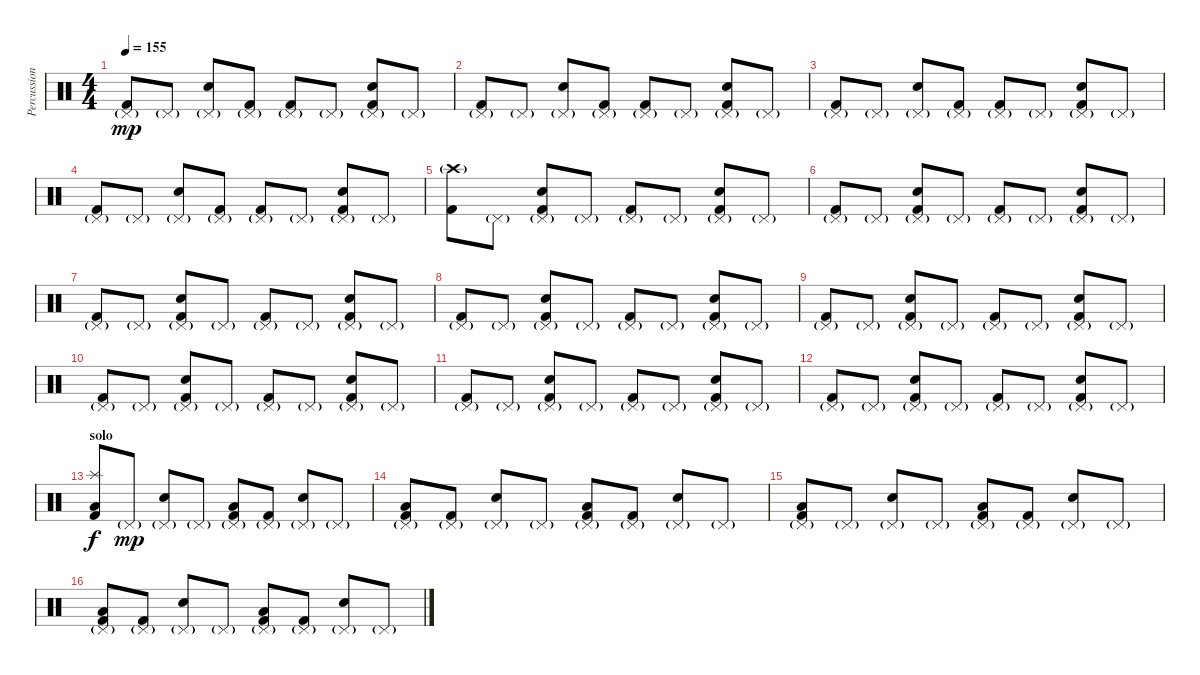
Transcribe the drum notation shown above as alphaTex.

\track ("Percussions" "Percussion") {instrument percussion}
\staff {score}
\articulation defaults
\ts (4 4)
\tempo 155
\clef neutral
\ks c
("Pedal Hi-Hat (hit)"{g} "Kick (hit) 2").8{dy mp} "Pedal Hi-Hat (hit)"{g}.8 ("Pedal Hi-Hat (hit)"{g} "Snare (hit) 2").8 ("Pedal Hi-Hat (hit)"{g} "Kick (hit) 2").8 ("Pedal Hi-Hat (hit)"{g} "Kick (hit) 2").8 "Pedal Hi-Hat (hit)"{g}.8 ("Pedal Hi-Hat (hit)"{g} "Snare (hit) 2" "Kick (hit) 2").8 "Pedal Hi-Hat (hit)"{g}.8 |
("Pedal Hi-Hat (hit)"{g} "Kick (hit) 2").8 "Pedal Hi-Hat (hit)"{g}.8 ("Pedal Hi-Hat (hit)"{g} "Snare (hit) 2").8 ("Pedal Hi-Hat (hit)"{g} "Kick (hit) 2").8 ("Pedal Hi-Hat (hit)"{g} "Kick (hit) 2").8 "Pedal Hi-Hat (hit)"{g}.8 ("Pedal Hi-Hat (hit)"{g} "Snare (hit) 2" "Kick (hit) 2").8 "Pedal Hi-Hat (hit)"{g}.8 |
("Pedal Hi-Hat (hit)"{g} "Kick (hit) 2").8 "Pedal Hi-Hat (hit)"{g}.8 ("Pedal Hi-Hat (hit)"{g} "Snare (hit) 2").8 ("Pedal Hi-Hat (hit)"{g} "Kick (hit) 2").8 ("Pedal Hi-Hat (hit)"{g} "Kick (hit) 2").8 "Pedal Hi-Hat (hit)"{g}.8 ("Pedal Hi-Hat (hit)"{g} "Snare (hit) 2" "Kick (hit) 2").8 "Pedal Hi-Hat (hit)"{g}.8 |
("Pedal Hi-Hat (hit)"{g} "Kick (hit) 2").8 "Pedal Hi-Hat (hit)"{g}.8 ("Pedal Hi-Hat (hit)"{g} "Snare (hit) 2").8 ("Pedal Hi-Hat (hit)"{g} "Kick (hit) 2").8 ("Pedal Hi-Hat (hit)"{g} "Kick (hit) 2").8 "Pedal Hi-Hat (hit)"{g}.8 ("Pedal Hi-Hat (hit)"{g} "Snare (hit) 2" "Kick (hit) 2").8 "Pedal Hi-Hat (hit)"{g}.8 |
("Crash high (hit)"{g} "Kick (hit) 2").8 "Pedal Hi-Hat (hit)"{g}.8 ("Pedal Hi-Hat (hit)"{g} "Snare (hit) 2" "Kick (hit) 2").8 "Pedal Hi-Hat (hit)"{g}.8 ("Pedal Hi-Hat (hit)"{g} "Kick (hit) 2").8 "Pedal Hi-Hat (hit)"{g}.8 ("Pedal Hi-Hat (hit)"{g} "Snare (hit) 2" "Kick (hit) 2").8 "Pedal Hi-Hat (hit)"{g}.8 |
("Pedal Hi-Hat (hit)"{g} "Kick (hit) 2").8 "Pedal Hi-Hat (hit)"{g}.8 ("Pedal Hi-Hat (hit)"{g} "Snare (hit) 2" "Kick (hit) 2").8 "Pedal Hi-Hat (hit)"{g}.8 ("Pedal Hi-Hat (hit)"{g} "Kick (hit) 2").8 "Pedal Hi-Hat (hit)"{g}.8 ("Pedal Hi-Hat (hit)"{g} "Snare (hit) 2" "Kick (hit) 2").8 "Pedal Hi-Hat (hit)"{g}.8 |
("Pedal Hi-Hat (hit)"{g} "Kick (hit) 2").8 "Pedal Hi-Hat (hit)"{g}.8 ("Pedal Hi-Hat (hit)"{g} "Snare (hit) 2" "Kick (hit) 2").8 "Pedal Hi-Hat (hit)"{g}.8 ("Pedal Hi-Hat (hit)"{g} "Kick (hit) 2").8 "Pedal Hi-Hat (hit)"{g}.8 ("Pedal Hi-Hat (hit)"{g} "Snare (hit) 2" "Kick (hit) 2").8 "Pedal Hi-Hat (hit)"{g}.8 |
("Pedal Hi-Hat (hit)"{g} "Kick (hit) 2").8 "Pedal Hi-Hat (hit)"{g}.8 ("Pedal Hi-Hat (hit)"{g} "Snare (hit) 2" "Kick (hit) 2").8 "Pedal Hi-Hat (hit)"{g}.8 ("Pedal Hi-Hat (hit)"{g} "Kick (hit) 2").8 "Pedal Hi-Hat (hit)"{g}.8 ("Pedal Hi-Hat (hit)"{g} "Snare (hit) 2" "Kick (hit) 2").8 "Pedal Hi-Hat (hit)"{g}.8 |
("Pedal Hi-Hat (hit)"{g} "Kick (hit) 2").8 "Pedal Hi-Hat (hit)"{g}.8 ("Pedal Hi-Hat (hit)"{g} "Snare (hit) 2" "Kick (hit) 2").8 "Pedal Hi-Hat (hit)"{g}.8 ("Pedal Hi-Hat (hit)"{g} "Kick (hit) 2").8 "Pedal Hi-Hat (hit)"{g}.8 ("Pedal Hi-Hat (hit)"{g} "Snare (hit) 2" "Kick (hit) 2").8 "Pedal Hi-Hat (hit)"{g}.8 |
("Pedal Hi-Hat (hit)"{g} "Kick (hit) 2").8 "Pedal Hi-Hat (hit)"{g}.8 ("Pedal Hi-Hat (hit)"{g} "Snare (hit) 2" "Kick (hit) 2").8 "Pedal Hi-Hat (hit)"{g}.8 ("Pedal Hi-Hat (hit)"{g} "Kick (hit) 2").8 "Pedal Hi-Hat (hit)"{g}.8 ("Pedal Hi-Hat (hit)"{g} "Snare (hit) 2" "Kick (hit) 2").8 "Pedal Hi-Hat (hit)"{g}.8 |
("Pedal Hi-Hat (hit)"{g} "Kick (hit) 2").8 "Pedal Hi-Hat (hit)"{g}.8 ("Pedal Hi-Hat (hit)"{g} "Snare (hit) 2" "Kick (hit) 2").8 "Pedal Hi-Hat (hit)"{g}.8 ("Pedal Hi-Hat (hit)"{g} "Kick (hit) 2").8 "Pedal Hi-Hat (hit)"{g}.8 ("Pedal Hi-Hat (hit)"{g} "Snare (hit) 2" "Kick (hit) 2").8 "Pedal Hi-Hat (hit)"{g}.8 |
("Pedal Hi-Hat (hit)"{g} "Kick (hit) 2").8 "Pedal Hi-Hat (hit)"{g}.8 ("Pedal Hi-Hat (hit)"{g} "Snare (hit) 2" "Kick (hit) 2").8 "Pedal Hi-Hat (hit)"{g}.8 ("Pedal Hi-Hat (hit)"{g} "Kick (hit) 2").8 "Pedal Hi-Hat (hit)"{g}.8 ("Pedal Hi-Hat (hit)"{g} "Snare (hit) 2" "Kick (hit) 2").8 "Pedal Hi-Hat (hit)"{g}.8 |
\section ("" "solo")
("Splash (hit)" "Low Floor Tom (hit)" "Kick (hit) 2").8{dy f} "Pedal Hi-Hat (hit)"{g}.8{dy mp} ("Pedal Hi-Hat (hit)"{g} "Snare (hit) 2").8 "Pedal Hi-Hat (hit)"{g}.8 ("Pedal Hi-Hat (hit)"{g} "Low Floor Tom (hit)" "Kick (hit) 2").8 ("Pedal Hi-Hat (hit)"{g} "Kick (hit) 2").8 ("Pedal Hi-Hat (hit)"{g} "Snare (hit) 2").8 "Pedal Hi-Hat (hit)"{g}.8 |
("Pedal Hi-Hat (hit)"{g} "Low Floor Tom (hit)" "Kick (hit) 2").8 ("Pedal Hi-Hat (hit)"{g} "Kick (hit) 2").8 ("Pedal Hi-Hat (hit)"{g} "Snare (hit) 2").8 "Pedal Hi-Hat (hit)"{g}.8 ("Pedal Hi-Hat (hit)"{g} "Low Floor Tom (hit)" "Kick (hit) 2").8 ("Pedal Hi-Hat (hit)"{g} "Kick (hit) 2").8 ("Pedal Hi-Hat (hit)"{g} "Snare (hit) 2").8 "Pedal Hi-Hat (hit)"{g}.8 |
("Pedal Hi-Hat (hit)"{g} "Low Floor Tom (hit)" "Kick (hit) 2").8 "Pedal Hi-Hat (hit)"{g}.8 ("Pedal Hi-Hat (hit)"{g} "Snare (hit) 2").8 "Pedal Hi-Hat (hit)"{g}.8 ("Pedal Hi-Hat (hit)"{g} "Low Floor Tom (hit)" "Kick (hit) 2").8 ("Pedal Hi-Hat (hit)"{g} "Kick (hit) 2").8 ("Pedal Hi-Hat (hit)"{g} "Snare (hit) 2").8 "Pedal Hi-Hat (hit)"{g}.8 |
("Pedal Hi-Hat (hit)"{g} "Low Floor Tom (hit)" "Kick (hit) 2").8 ("Pedal Hi-Hat (hit)"{g} "Kick (hit) 2").8 ("Pedal Hi-Hat (hit)"{g} "Snare (hit) 2").8 "Pedal Hi-Hat (hit)"{g}.8 ("Pedal Hi-Hat (hit)"{g} "Low Floor Tom (hit)" "Kick (hit) 2").8 ("Pedal Hi-Hat (hit)"{g} "Kick (hit) 2").8 ("Pedal Hi-Hat (hit)"{g} "Snare (hit) 2").8 "Pedal Hi-Hat (hit)"{g}.8
